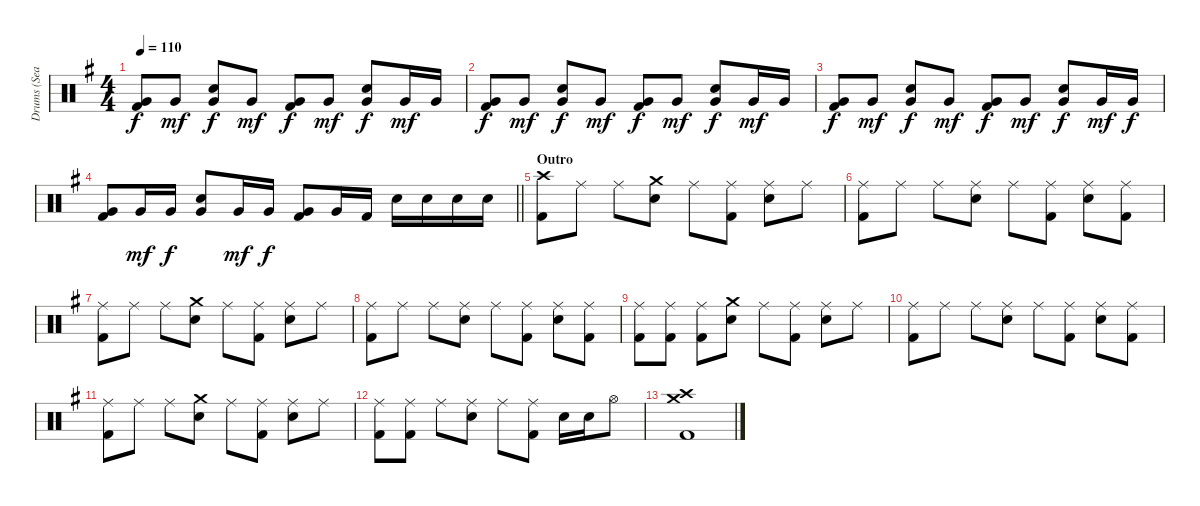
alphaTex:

\track ("Drums (Sean)" "Drums (Sea") {instrument percussion}
\staff {score}
\articulation defaults
\ts (4 4)
\tempo 110
\clef neutral
\ks g
("Very Low Tom (hit)" "Kick (hit) 2").8{dy f} "Very Low Tom (hit)".8{dy mf} ("Very Low Tom (hit)" "Snare (hit) 2").8{dy f} "Very Low Tom (hit)".8{dy mf} ("Very Low Tom (hit)" "Kick (hit) 2").8{dy f} "Very Low Tom (hit)".8{dy mf} ("Very Low Tom (hit)" "Snare (hit) 2").8{dy f} "Very Low Tom (hit)".16{dy mf} "Very Low Tom (hit)".16 |
("Very Low Tom (hit)" "Kick (hit) 2").8{dy f} "Very Low Tom (hit)".8{dy mf} ("Very Low Tom (hit)" "Snare (hit) 2").8{dy f} "Very Low Tom (hit)".8{dy mf} ("Very Low Tom (hit)" "Kick (hit) 2").8{dy f} "Very Low Tom (hit)".8{dy mf} ("Very Low Tom (hit)" "Snare (hit) 2").8{dy f} "Very Low Tom (hit)".16{dy mf} "Very Low Tom (hit)".16 |
("Very Low Tom (hit)" "Kick (hit) 2").8{dy f} "Very Low Tom (hit)".8{dy mf} ("Very Low Tom (hit)" "Snare (hit) 2").8{dy f} "Very Low Tom (hit)".8{dy mf} ("Very Low Tom (hit)" "Kick (hit) 2").8{dy f} "Very Low Tom (hit)".8{dy mf} ("Very Low Tom (hit)" "Snare (hit) 2").8{dy f} "Very Low Tom (hit)".16{dy mf} "Very Low Tom (hit)".16{dy f} |
\barLineRight lightlight
("Very Low Tom (hit)" "Kick (hit) 2").8 "Very Low Tom (hit)".16{dy mf} "Very Low Tom (hit)".16{dy f} ("Very Low Tom (hit)" "Snare (hit) 2").8 "Very Low Tom (hit)".16{dy mf} "Very Low Tom (hit)".16{dy f} ("Very Low Tom (hit)" "Kick (hit) 2").8 "Very Low Tom (hit)".16 "Kick (hit) 2".16 "Snare (hit) 2".16 "Snare (hit) 2".16 "Snare (hit) 2".16 "Snare (hit) 2".16 |
\section ("" "Outro")
("Crash high (hit)" "Kick (hit) 2").8 "Ride (middle)".8 "Ride (middle)".8 ("Crash medium (hit)" "Snare (hit) 2").8 "Ride (middle)".8 ("Ride (middle)" "Kick (hit) 2").8 ("Ride (middle)" "Snare (hit) 2").8 "Ride (middle)".8 |
("Ride (middle)" "Kick (hit) 2").8 "Ride (middle)".8 "Ride (middle)".8 ("Ride (middle)" "Snare (hit) 2").8 "Ride (middle)".8 ("Ride (middle)" "Kick (hit) 2").8 ("Ride (middle)" "Snare (hit) 2").8 ("Ride (middle)" "Kick (hit) 2").8 |
("Ride (middle)" "Kick (hit) 2").8 "Ride (middle)".8 "Ride (middle)".8 ("Crash medium (hit)" "Snare (hit) 2").8 "Ride (middle)".8 ("Ride (middle)" "Kick (hit) 2").8 ("Ride (middle)" "Snare (hit) 2").8 "Ride (middle)".8 |
("Ride (middle)" "Kick (hit) 2").8 "Ride (middle)".8 "Ride (middle)".8 ("Ride (middle)" "Snare (hit) 2").8 "Ride (middle)".8 ("Ride (middle)" "Kick (hit) 2").8 ("Ride (middle)" "Snare (hit) 2").8 ("Ride (middle)" "Kick (hit) 2").8 |
("Ride (middle)" "Kick (hit) 2").8 ("Ride (middle)" "Kick (hit) 2").8 ("Ride (middle)" "Kick (hit) 2").8 ("Crash medium (hit)" "Snare (hit) 2").8 "Ride (middle)".8 ("Ride (middle)" "Kick (hit) 2").8 ("Ride (middle)" "Snare (hit) 2").8 "Ride (middle)".8 |
("Ride (middle)" "Kick (hit) 2").8 "Ride (middle)".8 "Ride (middle)".8 ("Ride (middle)" "Snare (hit) 2").8 "Ride (middle)".8 ("Ride (middle)" "Kick (hit) 2").8 ("Ride (middle)" "Snare (hit) 2").8 ("Ride (middle)" "Kick (hit) 2").8 |
("Ride (middle)" "Kick (hit) 2").8 "Ride (middle)".8 "Ride (middle)".8 ("Crash medium (hit)" "Snare (hit) 2").8 "Ride (middle)".8 ("Ride (middle)" "Kick (hit) 2").8 ("Ride (middle)" "Snare (hit) 2").8 "Ride (middle)".8 |
("Ride (middle)" "Kick (hit) 2").8 ("Ride (middle)" "Kick (hit) 2").8 "Ride (middle)".8 ("Ride (middle)" "Snare (hit) 2").8 "Ride (middle)".8 ("Ride (middle)" "Kick (hit) 2").8 "Snare (hit) 2".16 "Snare (hit) 2".16 "Hi-Hat (open)".8 |
("Crash high (hit)" "Crash medium (hit)" "Kick (hit) 2").1
